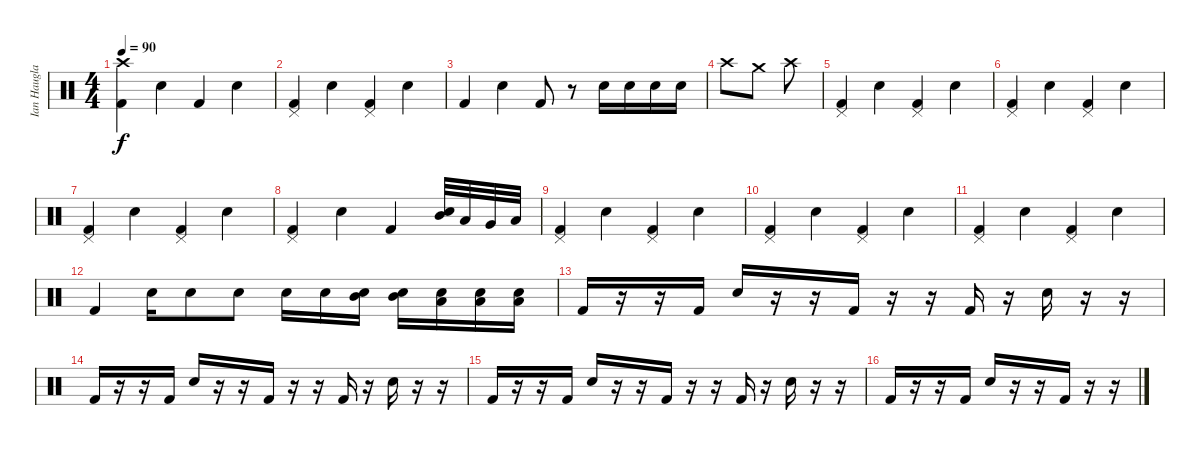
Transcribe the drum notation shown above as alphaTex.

\track ("Ian Haugland" "Ian Haugla") {instrument percussion}
\staff {score}
\articulation defaults
\ts (4 4)
\tempo 90
\clef neutral
\ks c
("Crash high (hit)" "Kick (hit) 2").4{dy f} "Snare (hit) 2".4 "Kick (hit) 2".4 "Snare (hit) 2".4 |
("Pedal Hi-Hat (hit)" "Kick (hit) 2").4 "Snare (hit) 2".4 ("Pedal Hi-Hat (hit)" "Kick (hit) 2").4 "Snare (hit) 2".4 |
"Kick (hit) 2".4 "Snare (hit) 2".4 "Kick (hit) 2".8 r.8 "Electric Snare (hit)".16 "Electric Snare (hit)".16 "Electric Snare (hit)".16 "Electric Snare (hit)".16 |
"Crash high (hit)".8 "Crash medium (hit)".8 "Crash high (hit)".8 |
("Pedal Hi-Hat (hit)" "Kick (hit) 2").4 "Snare (hit) 2".4 ("Pedal Hi-Hat (hit)" "Kick (hit) 2").4 "Snare (hit) 2".4 |
("Pedal Hi-Hat (hit)" "Kick (hit) 2").4 "Snare (hit) 2".4 ("Pedal Hi-Hat (hit)" "Kick (hit) 2").4 "Snare (hit) 2".4 |
("Pedal Hi-Hat (hit)" "Kick (hit) 2").4 "Snare (hit) 2".4 ("Pedal Hi-Hat (hit)" "Kick (hit) 2").4 "Snare (hit) 2".4 |
("Pedal Hi-Hat (hit)" "Kick (hit) 2").4 "Snare (hit) 2".4 "Kick (hit) 2".4 ("Mid Tom (hit)" "Electric Snare (hit)").32 "Low Tom (hit)".32 "Very Low Tom (hit)".32 "Low Floor Tom (hit)".32 |
("Pedal Hi-Hat (hit)" "Kick (hit) 2").4 "Snare (hit) 2".4 ("Pedal Hi-Hat (hit)" "Kick (hit) 2").4 "Snare (hit) 2".4 |
("Pedal Hi-Hat (hit)" "Kick (hit) 2").4 "Snare (hit) 2".4 ("Pedal Hi-Hat (hit)" "Kick (hit) 2").4 "Snare (hit) 2".4 |
("Pedal Hi-Hat (hit)" "Kick (hit) 2").4 "Snare (hit) 2".4 ("Pedal Hi-Hat (hit)" "Kick (hit) 2").4 "Snare (hit) 2".4 |
"Kick (hit) 2".4 "Electric Snare (hit)".16 "Electric Snare (hit)".8 "Electric Snare (hit)".8 "Electric Snare (hit)".16 "Electric Snare (hit)".16 ("Mid Tom (hit)" "Electric Snare (hit)").16 ("Mid Tom (hit)" "Electric Snare (hit)").16 ("Low Tom (hit)" "Electric Snare (hit)").16 ("Low Tom (hit)" "Electric Snare (hit)").16 ("Low Floor Tom (hit)" "Electric Snare (hit)").16 |
"Kick (hit) 2".16 r.16 r.16 "Kick (hit) 2".16 "Electric Snare (hit)".16 r.16 r.16 "Kick (hit) 2".16 r.16 r.16 "Kick (hit) 2".16 r.16 "Electric Snare (hit)".16 r.16 r.16 |
"Kick (hit) 2".16 r.16 r.16 "Kick (hit) 2".16 "Electric Snare (hit)".16 r.16 r.16 "Kick (hit) 2".16 r.16 r.16 "Kick (hit) 2".16 r.16 "Electric Snare (hit)".16 r.16 r.16 |
"Kick (hit) 2".16 r.16 r.16 "Kick (hit) 2".16 "Electric Snare (hit)".16 r.16 r.16 "Kick (hit) 2".16 r.16 r.16 "Kick (hit) 2".16 r.16 "Electric Snare (hit)".16 r.16 r.16 |
"Kick (hit) 2".16 r.16 r.16 "Kick (hit) 2".16 "Electric Snare (hit)".16 r.16 r.16 "Kick (hit) 2".16 r.16 r.16
